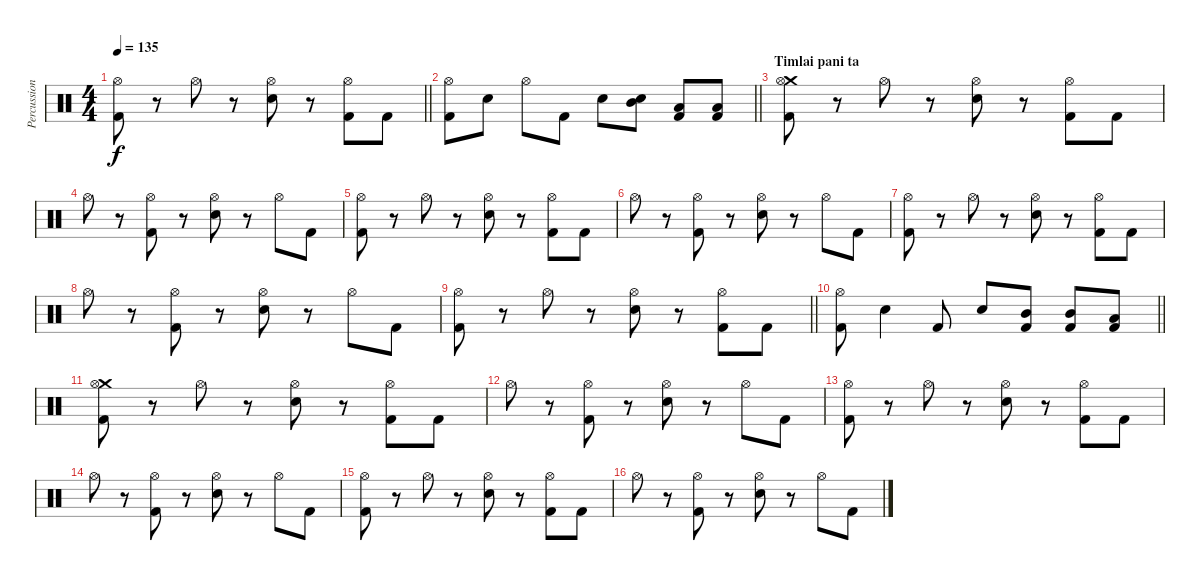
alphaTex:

\track ("Percussion" "Percussion") {instrument percussion}
\staff {score}
\articulation defaults
\ts (4 4)
\tempo 135
\clef neutral
\barLineRight lightlight
\ks c
("Hi-Hat (open)" "Kick (hit) 2").8{dy f} r.8 "Hi-Hat (open)".8 r.8 ("Hi-Hat (open)" "Electric Snare (hit)").8 r.8 ("Hi-Hat (open)" "Kick (hit) 2").8 "Kick (hit) 2".8 |
\barLineRight lightlight
("Hi-Hat (open)" "Kick (hit) 2").8 "Electric Snare (hit)".8 "Hi-Hat (open)".8 "Kick (hit) 2".8 "Electric Snare (hit)".8 ("Mid Tom (hit)" "Electric Snare (hit)").8 ("Low Tom (hit)" "Kick (hit) 2").8 ("Low Tom (hit)" "Kick (hit) 2").8 |
\section ("" "Timlai pani ta")
("Crash medium (hit)" "Hi-Hat (open)" "Kick (hit) 2").8 r.8 "Hi-Hat (open)".8 r.8 ("Hi-Hat (open)" "Electric Snare (hit)").8 r.8 ("Hi-Hat (open)" "Kick (hit) 2").8 "Kick (hit) 2".8 |
"Hi-Hat (open)".8 r.8 ("Hi-Hat (open)" "Kick (hit) 2").8 r.8 ("Hi-Hat (open)" "Electric Snare (hit)").8 r.8 "Hi-Hat (open)".8 "Kick (hit) 2".8 |
("Hi-Hat (open)" "Kick (hit) 2").8 r.8 "Hi-Hat (open)".8 r.8 ("Hi-Hat (open)" "Electric Snare (hit)").8 r.8 ("Hi-Hat (open)" "Kick (hit) 2").8 "Kick (hit) 2".8 |
"Hi-Hat (open)".8 r.8 ("Hi-Hat (open)" "Kick (hit) 2").8 r.8 ("Hi-Hat (open)" "Electric Snare (hit)").8 r.8 "Hi-Hat (open)".8 "Kick (hit) 2".8 |
("Hi-Hat (open)" "Kick (hit) 2").8 r.8 "Hi-Hat (open)".8 r.8 ("Hi-Hat (open)" "Electric Snare (hit)").8 r.8 ("Hi-Hat (open)" "Kick (hit) 2").8 "Kick (hit) 2".8 |
"Hi-Hat (open)".8 r.8 ("Hi-Hat (open)" "Kick (hit) 2").8 r.8 ("Hi-Hat (open)" "Electric Snare (hit)").8 r.8 "Hi-Hat (open)".8 "Kick (hit) 2".8 |
\barLineRight lightlight
("Hi-Hat (open)" "Kick (hit) 2").8 r.8 "Hi-Hat (open)".8 r.8 ("Hi-Hat (open)" "Electric Snare (hit)").8 r.8 ("Hi-Hat (open)" "Kick (hit) 2").8 "Kick (hit) 2".8 |
\barLineRight lightlight
("Hi-Hat (open)" "Kick (hit) 2").8 "Electric Snare (hit)".4 "Kick (hit) 2".8 "Electric Snare (hit)".8 ("Mid Tom (hit)" "Kick (hit) 2").8 ("Mid Tom (hit)" "Kick (hit) 2").8 ("Low Tom (hit)" "Kick (hit) 2").8 |
("Crash medium (hit)" "Hi-Hat (open)" "Kick (hit) 2").8 r.8 "Hi-Hat (open)".8 r.8 ("Hi-Hat (open)" "Electric Snare (hit)").8 r.8 ("Hi-Hat (open)" "Kick (hit) 2").8 "Kick (hit) 2".8 |
"Hi-Hat (open)".8 r.8 ("Hi-Hat (open)" "Kick (hit) 2").8 r.8 ("Hi-Hat (open)" "Electric Snare (hit)").8 r.8 "Hi-Hat (open)".8 "Kick (hit) 2".8 |
("Hi-Hat (open)" "Kick (hit) 2").8 r.8 "Hi-Hat (open)".8 r.8 ("Hi-Hat (open)" "Electric Snare (hit)").8 r.8 ("Hi-Hat (open)" "Kick (hit) 2").8 "Kick (hit) 2".8 |
"Hi-Hat (open)".8 r.8 ("Hi-Hat (open)" "Kick (hit) 2").8 r.8 ("Hi-Hat (open)" "Electric Snare (hit)").8 r.8 "Hi-Hat (open)".8 "Kick (hit) 2".8 |
("Hi-Hat (open)" "Kick (hit) 2").8 r.8 "Hi-Hat (open)".8 r.8 ("Hi-Hat (open)" "Electric Snare (hit)").8 r.8 ("Hi-Hat (open)" "Kick (hit) 2").8 "Kick (hit) 2".8 |
"Hi-Hat (open)".8 r.8 ("Hi-Hat (open)" "Kick (hit) 2").8 r.8 ("Hi-Hat (open)" "Electric Snare (hit)").8 r.8 "Hi-Hat (open)".8 "Kick (hit) 2".8
